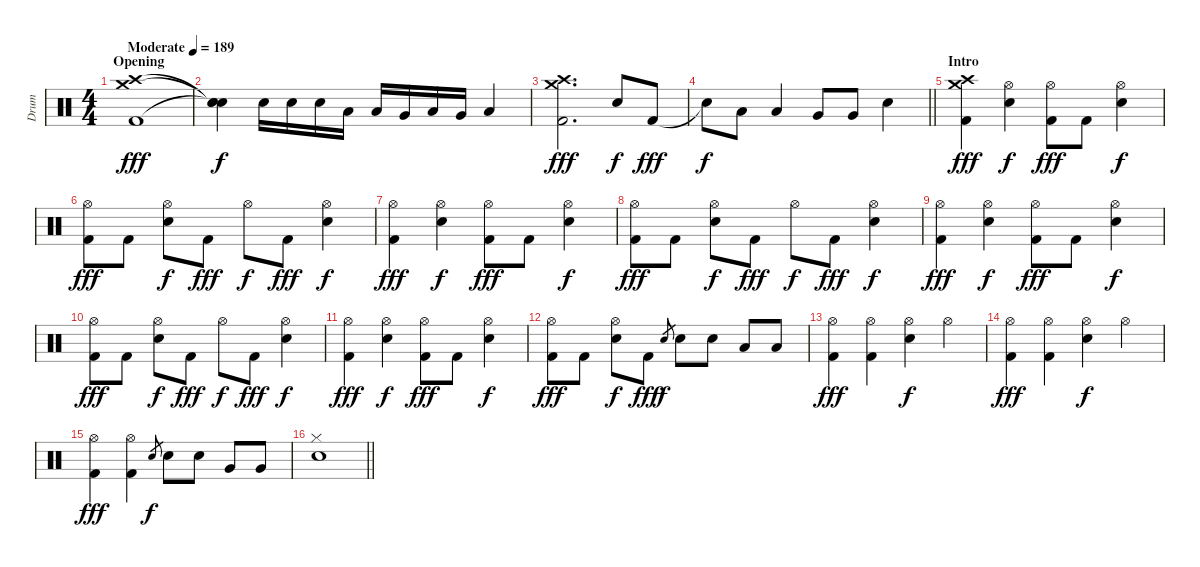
\track ("Drum" "Drum") {instrument percussion}
\staff {score}
\articulation defaults
\ts (4 4)
\section ("" "Opening")
\tempo (189 "Moderate")
\clef neutral
\ks c
("Crash high (hit)" "Crash medium (hit)" "Kick (hit) 2").1{dy fff} |
("Snare (hit)"{t} "Snare (hit)"{t} "Snare (hit)"{t}).4{dy f} "Electric Snare (hit)".16 "Electric Snare (hit)".16 "Electric Snare (hit)".16 "Low Tom (hit)".16 "Low Tom (hit)".16 "Very Low Tom (hit)".16 "Low Tom (hit)".16 "Very Low Tom (hit)".16 "Low Floor Tom (hit)".4 |
("Crash high (hit)" "Crash medium (hit)" "Kick (hit) 2").2{d dy fff} "Electric Snare (hit)".8{dy f} "Kick (hit) 2".8{dy fff} |
\barLineRight lightlight "Snare (hit)"{t}.8{dy f} "Low Tom (hit)".8 "Low Tom (hit)".4 "Very Low Tom (hit)".8 "Very Low Tom (hit)".8 "Electric Snare (hit)".4
|
\section ("" "Intro")
("Crash medium (hit)" "Crash high (hit)" "Kick (hit) 2").4{dy fff} ("Hi-Hat (open)" "Electric Snare (hit)").4{dy f} ("Hi-Hat (open)" "Kick (hit) 2").8{dy fff} "Kick (hit) 2".8 ("Hi-Hat (open)" "Electric Snare (hit)").4{dy f} |
("Hi-Hat (open)" "Kick (hit) 2").8{dy fff} "Kick (hit) 2".8 ("Hi-Hat (open)" "Electric Snare (hit)").8{dy f} "Kick (hit) 2".8{dy fff} "Hi-Hat (open)".8{dy f} "Kick (hit) 2".8{dy fff} ("Hi-Hat (open)" "Electric Snare (hit)").4{dy f} |
("Hi-Hat (open)" "Kick (hit) 2").4{dy fff} ("Hi-Hat (open)" "Electric Snare (hit)").4{dy f} ("Hi-Hat (open)" "Kick (hit) 2").8{dy fff} "Kick (hit) 2".8 ("Hi-Hat (open)" "Electric Snare (hit)").4{dy f} |
("Hi-Hat (open)" "Kick (hit) 2").8{dy fff} "Kick (hit) 2".8 ("Hi-Hat (open)" "Electric Snare (hit)").8{dy f} "Kick (hit) 2".8{dy fff} "Hi-Hat (open)".8{dy f} "Kick (hit) 2".8{dy fff} ("Hi-Hat (open)" "Electric Snare (hit)").4{dy f} |
("Hi-Hat (open)" "Kick (hit) 2").4{dy fff} ("Hi-Hat (open)" "Electric Snare (hit)").4{dy f} ("Hi-Hat (open)" "Kick (hit) 2").8{dy fff} "Kick (hit) 2".8 ("Hi-Hat (open)" "Electric Snare (hit)").4{dy f} |
("Hi-Hat (open)" "Kick (hit) 2").8{dy fff} "Kick (hit) 2".8 ("Hi-Hat (open)" "Electric Snare (hit)").8{dy f} "Kick (hit) 2".8{dy fff} "Hi-Hat (open)".8{dy f} "Kick (hit) 2".8{dy fff} ("Hi-Hat (open)" "Electric Snare (hit)").4{dy f} |
("Hi-Hat (open)" "Kick (hit) 2").4{dy fff} ("Hi-Hat (open)" "Electric Snare (hit)").4{dy f} ("Hi-Hat (open)" "Kick (hit) 2").8{dy fff} "Kick (hit) 2".8 ("Hi-Hat (open)" "Electric Snare (hit)").4{dy f} |
("Hi-Hat (open)" "Kick (hit) 2").8{dy fff} "Kick (hit) 2".8 ("Hi-Hat (open)" "Electric Snare (hit)").8{dy f} "Kick (hit) 2".8{dy fff} "Electric Snare (hit)".8{gr dy f} "Electric Snare (hit)".8 "Electric Snare (hit)".8 "Low Tom (hit)".8 "Low Tom (hit)".8 |
("Hi-Hat (open)" "Kick (hit) 2").4{dy fff} ("Hi-Hat (open)" "Kick (hit) 2").4 ("Hi-Hat (open)" "Electric Snare (hit)").4{dy f} "Hi-Hat (open)".4 |
("Hi-Hat (open)" "Kick (hit) 2").4{dy fff} ("Hi-Hat (open)" "Kick (hit) 2").4 ("Hi-Hat (open)" "Electric Snare (hit)").4{dy f} "Hi-Hat (open)".4 |
("Hi-Hat (open)" "Kick (hit) 2").4{dy fff} ("Hi-Hat (open)" "Kick (hit) 2").4 "Electric Snare (hit)".8{gr dy f} "Electric Snare (hit)".8 "Electric Snare (hit)".8 "Very Low Tom (hit)".8 "Very Low Tom (hit)".8 |
\barLineRight lightlight
("Hi-Hat (closed)" "Electric Snare (hit)").1
